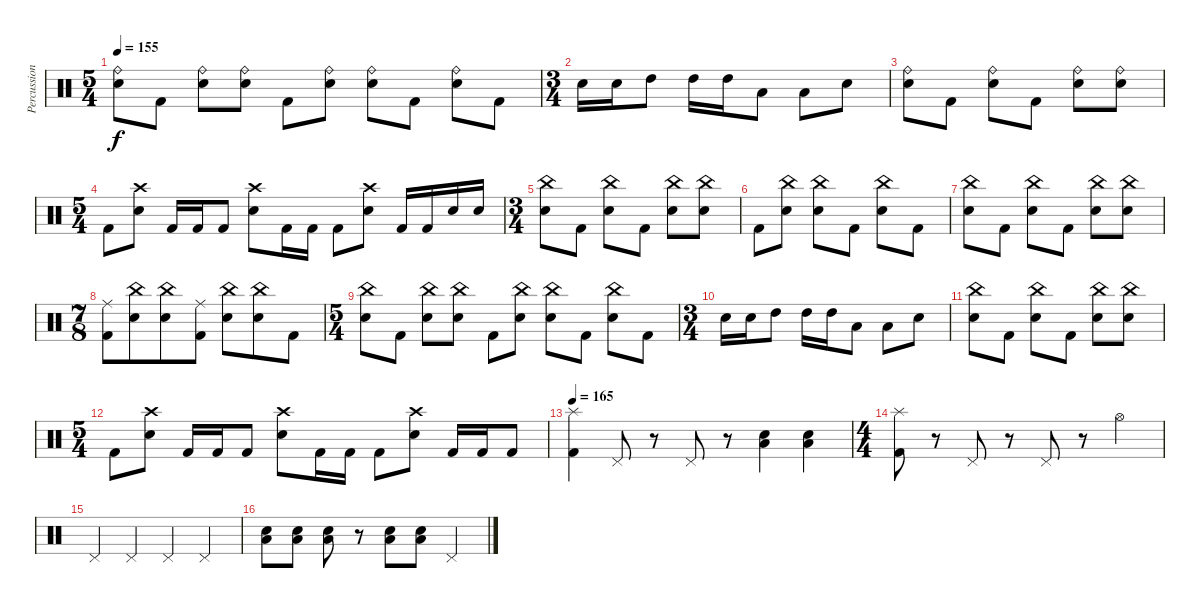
\track ("Percussion" "Percussion") {instrument percussion}
\staff {score}
\articulation defaults
\ts (5 4)
\tempo 155
\clef neutral
\ks c
("Ride (bell)" "Electric Snare (hit)").8{dy f} "Kick (hit) 2".8 ("Ride (bell)" "Electric Snare (hit)").8 ("Ride (bell)" "Electric Snare (hit)").8 "Kick (hit) 2".8 ("Ride (bell)" "Electric Snare (hit)").8 ("Ride (bell)" "Electric Snare (hit)").8 "Kick (hit) 2".8 ("Ride (bell)" "Electric Snare (hit)").8 "Kick (hit) 2".8 |
\ts (3 4)
"Electric Snare (hit)".16 "Electric Snare (hit)".16 "High Tom (hit)".8 "High Tom (hit)".16 "High Tom (hit)".16 "Low Tom (hit)".8 "Low Floor Tom (hit)".8 "Electric Snare (hit)".8 |
("Ride (bell)" "Electric Snare (hit)").8 "Kick (hit) 2".8 ("Ride (bell)" "Electric Snare (hit)").8 "Kick (hit) 2".8 ("Ride (bell)" "Electric Snare (hit)").8 ("Ride (bell)" "Electric Snare (hit)").8 |
\ts (5 4)
"Kick (hit) 2".8 ("Crash high (hit)" "Electric Snare (hit)").8 "Kick (hit) 2".16 "Kick (hit) 2".16 "Kick (hit) 2".8 ("Crash high (hit)" "Electric Snare (hit)").8 "Kick (hit) 2".16 "Kick (hit) 2".16 "Kick (hit) 2".8 ("Crash high (hit)" "Electric Snare (hit)").8 "Kick (hit) 2".16 "Kick (hit) 2".16 "Electric Snare (hit)".16 "Electric Snare (hit)".16 |
\ts (3 4)
("China (hit)" "Electric Snare (hit)").8 "Kick (hit) 2".8 ("China (hit)" "Electric Snare (hit)").8 "Kick (hit) 2".8 ("China (hit)" "Electric Snare (hit)").8 ("China (hit)" "Electric Snare (hit)").8 |
"Kick (hit) 2".8 ("China (hit)" "Electric Snare (hit)").8 ("China (hit)" "Electric Snare (hit)").8 "Kick (hit) 2".8 ("China (hit)" "Electric Snare (hit)").8 "Kick (hit) 2".8 |
("China (hit)" "Electric Snare (hit)").8 "Kick (hit) 2".8 ("China (hit)" "Electric Snare (hit)").8 "Kick (hit) 2".8 ("China (hit)" "Electric Snare (hit)").8 ("China (hit)" "Electric Snare (hit)").8 |
\ts (7 8)
("Ride (middle)" "Kick (hit) 2").8 ("China (hit)" "Electric Snare (hit)").8 ("China (hit)" "Electric Snare (hit)").8 ("Ride (middle)" "Kick (hit) 2").8 ("China (hit)" "Electric Snare (hit)").8 ("China (hit)" "Electric Snare (hit)").8 "Kick (hit) 2".8 |
\ts (5 4)
("China (hit)" "Electric Snare (hit)").8 "Kick (hit) 2".8 ("China (hit)" "Electric Snare (hit)").8 ("China (hit)" "Electric Snare (hit)").8 "Kick (hit) 2".8 ("China (hit)" "Electric Snare (hit)").8 ("China (hit)" "Electric Snare (hit)").8 "Kick (hit) 2".8 ("China (hit)" "Electric Snare (hit)").8 "Kick (hit) 2".8 |
\ts (3 4)
"Electric Snare (hit)".16 "Electric Snare (hit)".16 "High Tom (hit)".8 "High Tom (hit)".16 "High Tom (hit)".16 "Low Tom (hit)".8 "Low Floor Tom (hit)".8 "Electric Snare (hit)".8 |
("China (hit)" "Electric Snare (hit)").8 "Kick (hit) 2".8 ("China (hit)" "Electric Snare (hit)").8 "Kick (hit) 2".8 ("China (hit)" "Electric Snare (hit)").8 ("China (hit)" "Electric Snare (hit)").8 |
\ts (5 4)
"Kick (hit) 2".8 ("Crash high (hit)" "Electric Snare (hit)").8 "Kick (hit) 2".16 "Kick (hit) 2".16 "Kick (hit) 2".8 ("Crash high (hit)" "Electric Snare (hit)").8 "Kick (hit) 2".16 "Kick (hit) 2".16 "Kick (hit) 2".8 ("Crash high (hit)" "Electric Snare (hit)").8 "Kick (hit) 2".16 "Kick (hit) 2".16 "Kick (hit) 2".8 |
\tempo 165
("Splash (hit)" "Kick (hit) 2").4 "Pedal Hi-Hat (hit)".8 r.8 "Pedal Hi-Hat (hit)".8 r.8 ("Low Floor Tom (hit)" "Electric Snare (hit)").4 ("Low Floor Tom (hit)" "Electric Snare (hit)").4 |
\ts (4 4)
("Splash (hit)" "Kick (hit) 2").8 r.8 "Pedal Hi-Hat (hit)".8 r.8 "Pedal Hi-Hat (hit)".8 r.8 "Hi-Hat (open)".4 |
"Pedal Hi-Hat (hit)".4 "Pedal Hi-Hat (hit)".4 "Pedal Hi-Hat (hit)".4 "Pedal Hi-Hat (hit)".4 |
("Electric Snare (hit)" "Low Floor Tom (hit)").8 ("Electric Snare (hit)" "Low Floor Tom (hit)").8 ("Electric Snare (hit)" "Low Floor Tom (hit)").8 r.8 ("Electric Snare (hit)" "Low Floor Tom (hit)").8 ("Electric Snare (hit)" "Low Floor Tom (hit)").8 "Pedal Hi-Hat (hit)".4
